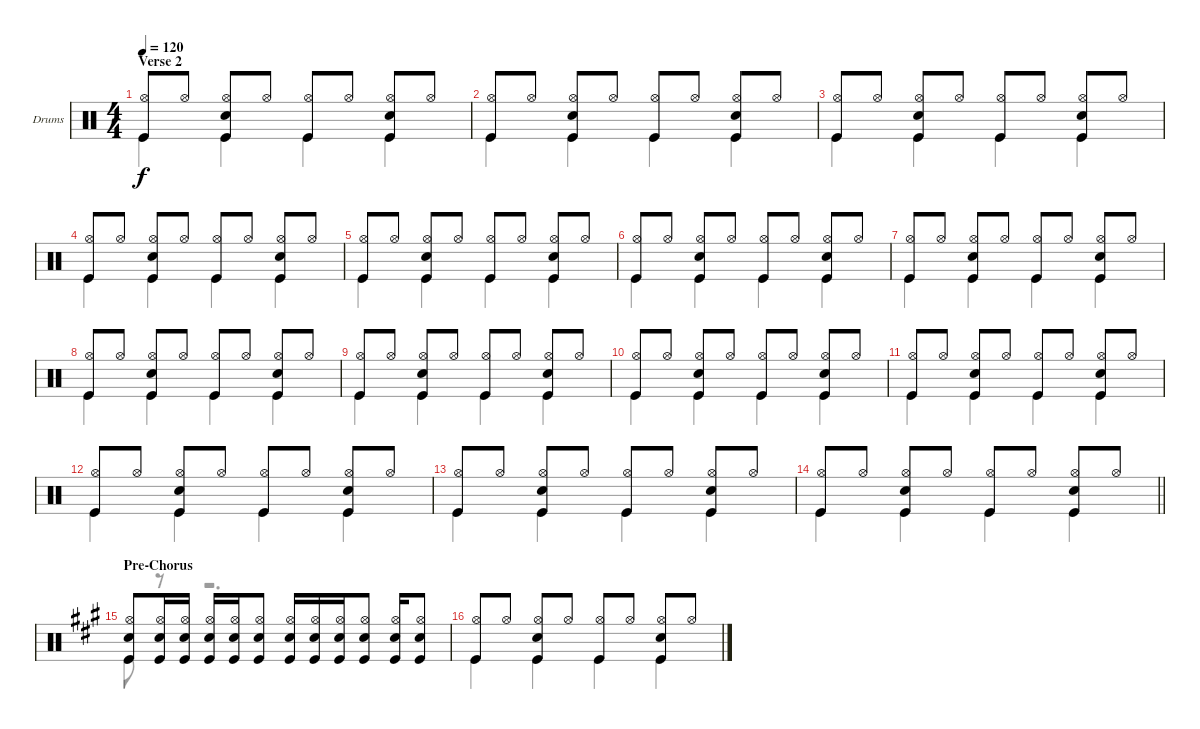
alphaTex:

\bracketExtendMode groupsimilarinstruments
\firstSystemTrackNameOrientation horizontal
\otherSystemsTrackNameOrientation horizontal
\track ("Drumkit" "Drums") {instrument percussion}
\staff {score}
\articulation defaults
\voice
\ts (4 4)
\section ("" "Verse 2")
\tempo 120
\clef neutral
\ks c
("Kick (hit)" "Hi-Hat (open)").8{dy f} "Hi-Hat (open)".8 ("Kick (hit)" "Hi-Hat (open)" "Snare (hit) 2").8 "Hi-Hat (open)".8 ("Kick (hit)" "Hi-Hat (open)").8 "Hi-Hat (open)".8 ("Kick (hit)" "Hi-Hat (open)" "Snare (hit) 2").8 "Hi-Hat (open)".8 |
("Kick (hit)" "Hi-Hat (open)").8 "Hi-Hat (open)".8 ("Kick (hit)" "Hi-Hat (open)" "Snare (hit) 2").8 "Hi-Hat (open)".8 ("Kick (hit)" "Hi-Hat (open)").8 "Hi-Hat (open)".8 ("Kick (hit)" "Hi-Hat (open)" "Snare (hit) 2").8 "Hi-Hat (open)".8 |
("Kick (hit)" "Hi-Hat (open)").8 "Hi-Hat (open)".8 ("Kick (hit)" "Hi-Hat (open)" "Snare (hit) 2").8 "Hi-Hat (open)".8 ("Kick (hit)" "Hi-Hat (open)").8 "Hi-Hat (open)".8 ("Kick (hit)" "Hi-Hat (open)" "Snare (hit) 2").8 "Hi-Hat (open)".8 |
("Kick (hit)" "Hi-Hat (open)").8 "Hi-Hat (open)".8 ("Kick (hit)" "Hi-Hat (open)" "Snare (hit) 2").8 "Hi-Hat (open)".8 ("Kick (hit)" "Hi-Hat (open)").8 "Hi-Hat (open)".8 ("Kick (hit)" "Hi-Hat (open)" "Snare (hit) 2").8 "Hi-Hat (open)".8 |
("Kick (hit)" "Hi-Hat (open)").8 "Hi-Hat (open)".8 ("Kick (hit)" "Hi-Hat (open)" "Snare (hit) 2").8 "Hi-Hat (open)".8 ("Kick (hit)" "Hi-Hat (open)").8 "Hi-Hat (open)".8 ("Kick (hit)" "Hi-Hat (open)" "Snare (hit) 2").8 "Hi-Hat (open)".8 |
("Kick (hit)" "Hi-Hat (open)").8 "Hi-Hat (open)".8 ("Kick (hit)" "Hi-Hat (open)" "Snare (hit) 2").8 "Hi-Hat (open)".8 ("Kick (hit)" "Hi-Hat (open)").8 "Hi-Hat (open)".8 ("Kick (hit)" "Hi-Hat (open)" "Snare (hit) 2").8 "Hi-Hat (open)".8 |
("Kick (hit)" "Hi-Hat (open)").8 "Hi-Hat (open)".8 ("Kick (hit)" "Hi-Hat (open)" "Snare (hit) 2").8 "Hi-Hat (open)".8 ("Kick (hit)" "Hi-Hat (open)").8 "Hi-Hat (open)".8 ("Kick (hit)" "Hi-Hat (open)" "Snare (hit) 2").8 "Hi-Hat (open)".8 |
("Kick (hit)" "Hi-Hat (open)").8 "Hi-Hat (open)".8 ("Kick (hit)" "Hi-Hat (open)" "Snare (hit) 2").8 "Hi-Hat (open)".8 ("Kick (hit)" "Hi-Hat (open)").8 "Hi-Hat (open)".8 ("Kick (hit)" "Hi-Hat (open)" "Snare (hit) 2").8 "Hi-Hat (open)".8 |
("Kick (hit)" "Hi-Hat (open)").8 "Hi-Hat (open)".8 ("Kick (hit)" "Hi-Hat (open)" "Snare (hit) 2").8 "Hi-Hat (open)".8 ("Kick (hit)" "Hi-Hat (open)").8 "Hi-Hat (open)".8 ("Kick (hit)" "Hi-Hat (open)" "Snare (hit) 2").8 "Hi-Hat (open)".8 |
("Kick (hit)" "Hi-Hat (open)").8 "Hi-Hat (open)".8 ("Kick (hit)" "Hi-Hat (open)" "Snare (hit) 2").8 "Hi-Hat (open)".8 ("Kick (hit)" "Hi-Hat (open)").8 "Hi-Hat (open)".8 ("Kick (hit)" "Hi-Hat (open)" "Snare (hit) 2").8 "Hi-Hat (open)".8 |
("Kick (hit)" "Hi-Hat (open)").8 "Hi-Hat (open)".8 ("Kick (hit)" "Hi-Hat (open)" "Snare (hit) 2").8 "Hi-Hat (open)".8 ("Kick (hit)" "Hi-Hat (open)").8 "Hi-Hat (open)".8 ("Kick (hit)" "Hi-Hat (open)" "Snare (hit) 2").8 "Hi-Hat (open)".8 |
("Kick (hit)" "Hi-Hat (open)").8 "Hi-Hat (open)".8 ("Kick (hit)" "Hi-Hat (open)" "Snare (hit) 2").8 "Hi-Hat (open)".8 ("Kick (hit)" "Hi-Hat (open)").8 "Hi-Hat (open)".8 ("Kick (hit)" "Hi-Hat (open)" "Snare (hit) 2").8 "Hi-Hat (open)".8 |
("Kick (hit)" "Hi-Hat (open)").8 "Hi-Hat (open)".8 ("Kick (hit)" "Hi-Hat (open)" "Snare (hit) 2").8 "Hi-Hat (open)".8 ("Kick (hit)" "Hi-Hat (open)").8 "Hi-Hat (open)".8 ("Kick (hit)" "Hi-Hat (open)" "Snare (hit) 2").8 "Hi-Hat (open)".8 |
\barLineRight lightlight
("Kick (hit)" "Hi-Hat (open)").8 "Hi-Hat (open)".8 ("Kick (hit)" "Hi-Hat (open)" "Snare (hit) 2").8 "Hi-Hat (open)".8 ("Kick (hit)" "Hi-Hat (open)").8 "Hi-Hat (open)".8 ("Kick (hit)" "Hi-Hat (open)" "Snare (hit) 2").8 "Hi-Hat (open)".8 |
\section ("" "Pre-Chorus")
\ks a
("Kick (hit)" "Hi-Hat (open)" "Snare (hit) 2").8 ("Snare (hit) 2" "Kick (hit)" "Hi-Hat (open)").16 ("Snare (hit) 2" "Kick (hit)" "Hi-Hat (open)").16 ("Snare (hit) 2" "Kick (hit)" "Hi-Hat (open)").16 ("Snare (hit) 2" "Kick (hit)" "Hi-Hat (open)").16 ("Kick (hit)" "Hi-Hat (open)" "Snare (hit) 2").8 ("Snare (hit) 2" "Kick (hit)" "Hi-Hat (open)").16 ("Snare (hit) 2" "Kick (hit)" "Hi-Hat (open)").16 ("Snare (hit) 2" "Kick (hit)" "Hi-Hat (open)").16 ("Snare (hit) 2" "Kick (hit)" "Hi-Hat (open)").8 ("Snare (hit) 2" "Kick (hit)" "Hi-Hat (open)").16 ("Snare (hit) 2" "Kick (hit)" "Hi-Hat (open)").8 |
("Kick (hit)" "Hi-Hat (open)").8 "Hi-Hat (open)".8 ("Kick (hit)" "Hi-Hat (open)" "Snare (hit) 2").8 "Hi-Hat (open)".8 ("Kick (hit)" "Hi-Hat (open)").8 "Hi-Hat (open)".8 ("Kick (hit)" "Hi-Hat (open)" "Snare (hit) 2").8 "Hi-Hat (open)".8
\voice
\clef neutral
\ottava regular
\simile none
\ks c "Kick (hit)".4{dy f} "Kick (hit)".4 "Kick (hit)".4 "Kick (hit)".4
|
"Kick (hit)".4 "Kick (hit)".4 "Kick (hit)".4 "Kick (hit)".4 |
"Kick (hit)".4 "Kick (hit)".4 "Kick (hit)".4 "Kick (hit)".4 |
"Kick (hit)".4 "Kick (hit)".4 "Kick (hit)".4 "Kick (hit)".4 |
"Kick (hit)".4 "Kick (hit)".4 "Kick (hit)".4 "Kick (hit)".4 |
"Kick (hit)".4 "Kick (hit)".4 "Kick (hit)".4 "Kick (hit)".4 |
"Kick (hit)".4 "Kick (hit)".4 "Kick (hit)".4 "Kick (hit)".4 |
"Kick (hit)".4 "Kick (hit)".4 "Kick (hit)".4 "Kick (hit)".4 |
"Kick (hit)".4 "Kick (hit)".4 "Kick (hit)".4 "Kick (hit)".4 |
"Kick (hit)".4 "Kick (hit)".4 "Kick (hit)".4 "Kick (hit)".4 |
"Kick (hit)".4 "Kick (hit)".4 "Kick (hit)".4 "Kick (hit)".4 |
"Kick (hit)".4 "Kick (hit)".4 "Kick (hit)".4 "Kick (hit)".4 |
"Kick (hit)".4 "Kick (hit)".4 "Kick (hit)".4 "Kick (hit)".4 |
\barLineRight lightlight "Kick (hit)".4 "Kick (hit)".4 "Kick (hit)".4 "Kick (hit)".4
|
\ks a "Kick (hit)".8
r.8 r.2{d} |
"Kick (hit)".4 "Kick (hit)".4 "Kick (hit)".4 "Kick (hit)".4
